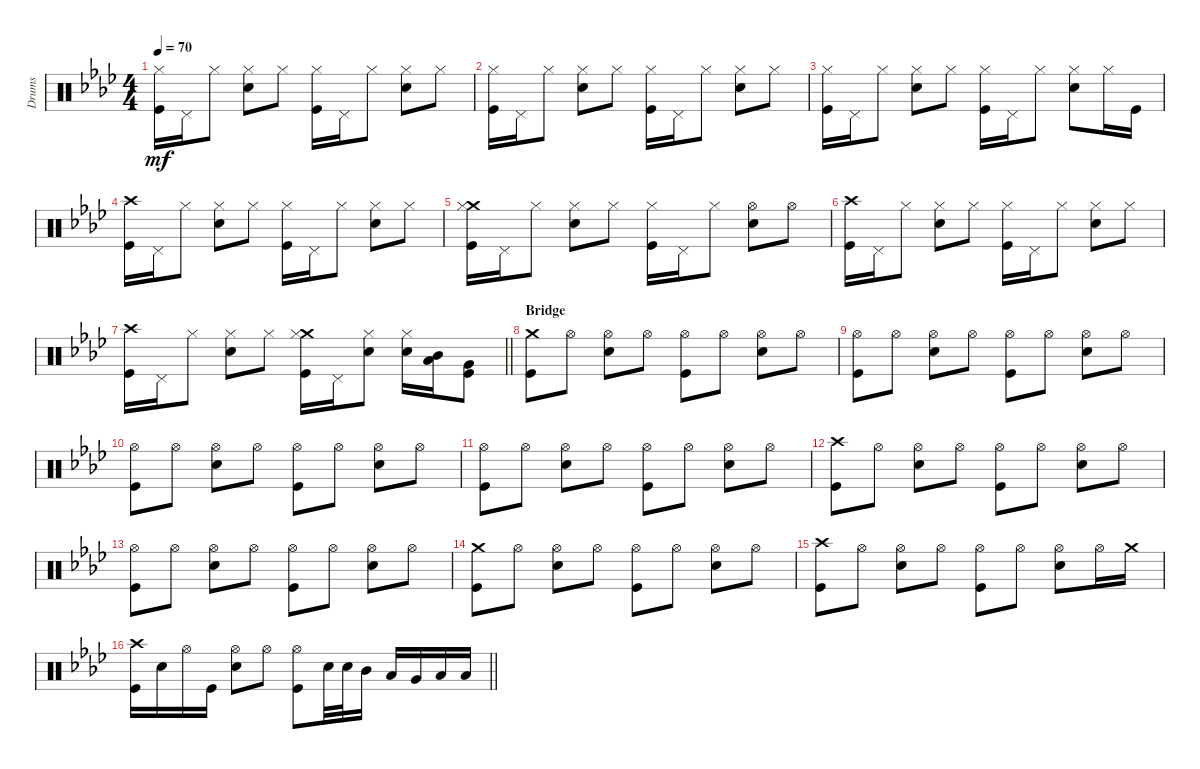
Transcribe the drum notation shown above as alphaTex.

\track ("Drums" "Drums") {instrument percussion}
\staff {score}
\articulation defaults
\ts (4 4)
\tempo 70
\clef neutral
\ks ab
("Hi-Hat (closed)" "Kick (hit)").16{dy mf} "Pedal Hi-Hat (hit)".16 "Hi-Hat (closed)".8 ("Hi-Hat (closed)" "Electric Snare (hit)").8 "Hi-Hat (closed)".8 ("Hi-Hat (closed)" "Kick (hit)").16 "Pedal Hi-Hat (hit)".16 "Hi-Hat (closed)".8 ("Hi-Hat (closed)" "Electric Snare (hit)").8 "Hi-Hat (closed)".8 |
("Hi-Hat (closed)" "Kick (hit)").16 "Pedal Hi-Hat (hit)".16 "Hi-Hat (closed)".8 ("Hi-Hat (closed)" "Electric Snare (hit)").8 "Hi-Hat (closed)".8 ("Hi-Hat (closed)" "Kick (hit)").16 "Pedal Hi-Hat (hit)".16 "Hi-Hat (closed)".8 ("Hi-Hat (closed)" "Electric Snare (hit)").8 "Hi-Hat (closed)".8 |
("Hi-Hat (closed)" "Kick (hit)").16 "Pedal Hi-Hat (hit)".16 "Hi-Hat (closed)".8 ("Hi-Hat (closed)" "Electric Snare (hit)").8 "Hi-Hat (closed)".8 ("Hi-Hat (closed)" "Kick (hit)").16 "Pedal Hi-Hat (hit)".16 "Hi-Hat (closed)".8 ("Hi-Hat (closed)" "Electric Snare (hit)").8 "Hi-Hat (closed)".16 "Kick (hit)".16 |
("Crash high (hit)" "Kick (hit)").16 "Pedal Hi-Hat (hit)".16 "Hi-Hat (closed)".8 ("Hi-Hat (closed)" "Electric Snare (hit)").8 "Hi-Hat (closed)".8 ("Hi-Hat (closed)" "Kick (hit)").16 "Pedal Hi-Hat (hit)".16 "Hi-Hat (closed)".8 ("Hi-Hat (closed)" "Electric Snare (hit)").8 "Hi-Hat (closed)".8 |
("Crash medium (hit)" "Hi-Hat (closed)" "Kick (hit)").16 "Pedal Hi-Hat (hit)".16 "Hi-Hat (closed)".8 ("Hi-Hat (closed)" "Electric Snare (hit)").8 "Hi-Hat (closed)".8 ("Hi-Hat (closed)" "Kick (hit)").16 "Pedal Hi-Hat (hit)".16 "Hi-Hat (closed)".8 ("Hi-Hat (open)" "Electric Snare (hit)").8 "Hi-Hat (open)".8 |
("Crash high (hit)" "Kick (hit)").16 "Pedal Hi-Hat (hit)".16 "Hi-Hat (closed)".8 ("Hi-Hat (closed)" "Electric Snare (hit)").8 "Hi-Hat (closed)".8 ("Hi-Hat (closed)" "Kick (hit)").16 "Pedal Hi-Hat (hit)".16 "Hi-Hat (closed)".8 ("Hi-Hat (closed)" "Electric Snare (hit)").8 "Hi-Hat (closed)".8 |
\barLineRight lightlight
("Crash high (hit)" "Kick (hit)").16 "Pedal Hi-Hat (hit)".16 "Hi-Hat (closed)".8 ("Hi-Hat (closed)" "Electric Snare (hit)").8 "Hi-Hat (closed)".8 ("Crash medium (hit)" "Hi-Hat (closed)" "Kick (hit)").16 "Pedal Hi-Hat (hit)".16 ("Hi-Hat (closed)" "Electric Snare (hit)").8 ("Hi-Hat (closed)" "Electric Snare (hit)").16 ("Mid Tom (hit)" "Low Tom (hit)").16 ("Very Low Tom (hit)" "Kick (hit)").8 |
\section ("" "Bridge")
("Crash medium (hit)" "Kick (hit)").8 "Hi-Hat (open)".8 ("Hi-Hat (open)" "Electric Snare (hit)").8 "Hi-Hat (open)".8 ("Hi-Hat (open)" "Kick (hit)").8 "Hi-Hat (open)".8 ("Hi-Hat (open)" "Electric Snare (hit)").8 "Hi-Hat (open)".8 |
("Hi-Hat (open)" "Kick (hit)").8 "Hi-Hat (open)".8 ("Hi-Hat (open)" "Electric Snare (hit)").8 "Hi-Hat (open)".8 ("Hi-Hat (open)" "Kick (hit)").8 "Hi-Hat (open)".8 ("Hi-Hat (open)" "Electric Snare (hit)").8 "Hi-Hat (open)".8 |
("Hi-Hat (open)" "Kick (hit)").8 "Hi-Hat (open)".8 ("Hi-Hat (open)" "Electric Snare (hit)").8 "Hi-Hat (open)".8 ("Hi-Hat (open)" "Kick (hit)").8 "Hi-Hat (open)".8 ("Hi-Hat (open)" "Electric Snare (hit)").8 "Hi-Hat (open)".8 |
("Hi-Hat (open)" "Kick (hit)").8 "Hi-Hat (open)".8 ("Hi-Hat (open)" "Electric Snare (hit)").8 "Hi-Hat (open)".8 ("Hi-Hat (open)" "Kick (hit)").8 "Hi-Hat (open)".8 ("Hi-Hat (open)" "Electric Snare (hit)").8 "Hi-Hat (open)".8 |
("Crash high (hit)" "Kick (hit)").8 "Hi-Hat (open)".8 ("Hi-Hat (open)" "Electric Snare (hit)").8 "Hi-Hat (open)".8 ("Hi-Hat (open)" "Kick (hit)").8 "Hi-Hat (open)".8 ("Hi-Hat (open)" "Electric Snare (hit)").8 "Hi-Hat (open)".8 |
("Hi-Hat (open)" "Kick (hit)").8 "Hi-Hat (open)".8 ("Hi-Hat (open)" "Electric Snare (hit)").8 "Hi-Hat (open)".8 ("Hi-Hat (open)" "Kick (hit)").8 "Hi-Hat (open)".8 ("Hi-Hat (open)" "Electric Snare (hit)").8 "Hi-Hat (open)".8 |
("Crash medium (hit)" "Kick (hit)").8 "Hi-Hat (open)".8 ("Hi-Hat (open)" "Electric Snare (hit)").8 "Hi-Hat (open)".8 ("Hi-Hat (open)" "Kick (hit)").8 "Hi-Hat (open)".8 ("Hi-Hat (open)" "Electric Snare (hit)").8 "Hi-Hat (open)".8 |
("Crash high (hit)" "Kick (hit)").8 "Hi-Hat (open)".8 ("Hi-Hat (open)" "Electric Snare (hit)").8 "Hi-Hat (open)".8 ("Hi-Hat (open)" "Kick (hit)").8 "Hi-Hat (open)".8 ("Hi-Hat (open)" "Electric Snare (hit)").8 "Hi-Hat (open)".16 "Crash medium (hit)".16 |
\barLineRight lightlight
("Crash high (hit)" "Kick (hit)").16 "Electric Snare (hit)".16 "Hi-Hat (open)".16 "Kick (hit)".16 ("Hi-Hat (open)" "Electric Snare (hit)").8 "Hi-Hat (open)".8 ("Hi-Hat (open)" "Kick (hit)").8 "Electric Snare (hit)".32 "Electric Snare (hit)".32 "Mid Tom (hit)".16 "Low Tom (hit)".16 "Very Low Tom (hit)".16 "Low Floor Tom (hit)".16 "Low Tom (hit)".16
